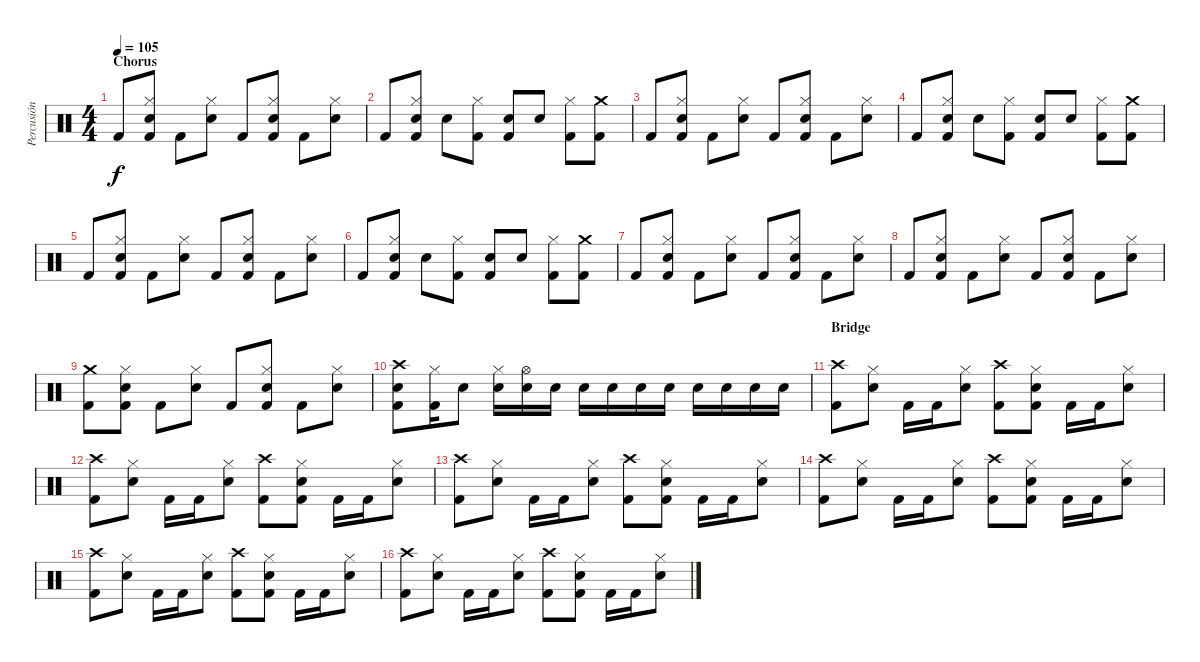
\track ("Percusión" "Percusión") {instrument percussion}
\staff {score}
\articulation defaults
\ts (4 4)
\section ("" "Chorus")
\tempo 105
\clef neutral
\ks c "Kick (hit) 2".8{dy f}
("Hi-Hat (closed)" "Snare (hit) 2" "Kick (hit) 2").8 "Kick (hit) 2".8 ("Hi-Hat (closed)" "Snare (hit) 2").8 "Kick (hit) 2".8 ("Hi-Hat (closed)" "Snare (hit) 2" "Kick (hit) 2").8 "Kick (hit) 2".8 ("Hi-Hat (closed)" "Snare (hit) 2").8 |
"Kick (hit) 2".8 ("Hi-Hat (closed)" "Snare (hit) 2" "Kick (hit) 2").8 "Snare (hit) 2".8 ("Hi-Hat (closed)" "Kick (hit) 2").8 ("Snare (hit) 2" "Kick (hit) 2").8 "Snare (hit) 2".8 ("Hi-Hat (closed)" "Kick (hit) 2").8 ("Crash medium (hit)" "Kick (hit) 2").8 |
"Kick (hit) 2".8 ("Hi-Hat (closed)" "Snare (hit) 2" "Kick (hit) 2").8 "Kick (hit) 2".8 ("Hi-Hat (closed)" "Snare (hit) 2").8 "Kick (hit) 2".8 ("Hi-Hat (closed)" "Snare (hit) 2" "Kick (hit) 2").8 "Kick (hit) 2".8 ("Hi-Hat (closed)" "Snare (hit) 2").8 |
"Kick (hit) 2".8 ("Hi-Hat (closed)" "Snare (hit) 2" "Kick (hit) 2").8 "Snare (hit) 2".8 ("Hi-Hat (closed)" "Kick (hit) 2").8 ("Snare (hit) 2" "Kick (hit) 2").8 "Snare (hit) 2".8 ("Hi-Hat (closed)" "Kick (hit) 2").8 ("Crash medium (hit)" "Kick (hit) 2").8 |
"Kick (hit) 2".8 ("Hi-Hat (closed)" "Snare (hit) 2" "Kick (hit) 2").8 "Kick (hit) 2".8 ("Hi-Hat (closed)" "Snare (hit) 2").8 "Kick (hit) 2".8 ("Hi-Hat (closed)" "Snare (hit) 2" "Kick (hit) 2").8 "Kick (hit) 2".8 ("Hi-Hat (closed)" "Snare (hit) 2").8 |
"Kick (hit) 2".8 ("Hi-Hat (closed)" "Snare (hit) 2" "Kick (hit) 2").8 "Snare (hit) 2".8 ("Hi-Hat (closed)" "Kick (hit) 2").8 ("Snare (hit) 2" "Kick (hit) 2").8 "Snare (hit) 2".8 ("Hi-Hat (closed)" "Kick (hit) 2").8 ("Crash medium (hit)" "Kick (hit) 2").8 |
"Kick (hit) 2".8 ("Hi-Hat (closed)" "Snare (hit) 2" "Kick (hit) 2").8 "Kick (hit) 2".8 ("Hi-Hat (closed)" "Snare (hit) 2").8 "Kick (hit) 2".8 ("Hi-Hat (closed)" "Snare (hit) 2" "Kick (hit) 2").8 "Kick (hit) 2".8 ("Hi-Hat (closed)" "Snare (hit) 2").8 |
"Kick (hit) 2".8 ("Hi-Hat (closed)" "Snare (hit) 2" "Kick (hit) 2").8 "Kick (hit) 2".8 ("Hi-Hat (closed)" "Snare (hit) 2").8 "Kick (hit) 2".8 ("Hi-Hat (closed)" "Snare (hit) 2" "Kick (hit) 2").8 "Kick (hit) 2".8 ("Hi-Hat (closed)" "Snare (hit) 2").8 |
("Crash medium (hit)" "Kick (hit) 2").8 ("Hi-Hat (closed)" "Snare (hit) 2" "Kick (hit) 2").8 "Kick (hit) 2".8 ("Hi-Hat (closed)" "Snare (hit) 2").8 "Kick (hit) 2".8 ("Hi-Hat (closed)" "Snare (hit) 2" "Kick (hit) 2").8 "Kick (hit) 2".8 ("Hi-Hat (closed)" "Snare (hit) 2").8 |
("Crash high (hit)" "Snare (hit) 2" "Kick (hit) 2").8 ("Hi-Hat (closed)" "Kick (hit) 2").16 "Snare (hit) 2".8 ("Hi-Hat (closed)" "Snare (hit) 2").16 ("Hi-Hat (open)" "Snare (hit) 2").16 "Snare (hit) 2".16 "Snare (hit) 2".16 "Snare (hit) 2".16 "Snare (hit) 2".16 "Snare (hit) 2".16 "Snare (hit) 2".16 "Snare (hit) 2".16 "Snare (hit) 2".16 "Snare (hit) 2".16 |
\section ("" "Bridge")
("Crash high (hit)" "Kick (hit) 2").8 ("Hi-Hat (closed)" "Snare (hit) 2").8 "Kick (hit) 2".16 "Kick (hit) 2".16 ("Hi-Hat (closed)" "Snare (hit) 2").8 ("Crash high (hit)" "Kick (hit) 2").8 ("Hi-Hat (closed)" "Snare (hit) 2" "Kick (hit) 2").8 "Kick (hit) 2".16 "Kick (hit) 2".16 ("Hi-Hat (closed)" "Snare (hit) 2").8 |
("Crash high (hit)" "Kick (hit) 2").8 ("Hi-Hat (closed)" "Snare (hit) 2").8 "Kick (hit) 2".16 "Kick (hit) 2".16 ("Hi-Hat (closed)" "Snare (hit) 2").8 ("Crash high (hit)" "Kick (hit) 2").8 ("Hi-Hat (closed)" "Snare (hit) 2" "Kick (hit) 2").8 "Kick (hit) 2".16 "Kick (hit) 2".16 ("Hi-Hat (closed)" "Snare (hit) 2").8 |
("Crash high (hit)" "Kick (hit) 2").8 ("Hi-Hat (closed)" "Snare (hit) 2").8 "Kick (hit) 2".16 "Kick (hit) 2".16 ("Hi-Hat (closed)" "Snare (hit) 2").8 ("Crash high (hit)" "Kick (hit) 2").8 ("Hi-Hat (closed)" "Snare (hit) 2" "Kick (hit) 2").8 "Kick (hit) 2".16 "Kick (hit) 2".16 ("Hi-Hat (closed)" "Snare (hit) 2").8 |
("Crash high (hit)" "Kick (hit) 2").8 ("Hi-Hat (closed)" "Snare (hit) 2").8 "Kick (hit) 2".16 "Kick (hit) 2".16 ("Hi-Hat (closed)" "Snare (hit) 2").8 ("Crash high (hit)" "Kick (hit) 2").8 ("Hi-Hat (closed)" "Snare (hit) 2" "Kick (hit) 2").8 "Kick (hit) 2".16 "Kick (hit) 2".16 ("Hi-Hat (closed)" "Snare (hit) 2").8 |
("Crash high (hit)" "Kick (hit) 2").8 ("Hi-Hat (closed)" "Snare (hit) 2").8 "Kick (hit) 2".16 "Kick (hit) 2".16 ("Hi-Hat (closed)" "Snare (hit) 2").8 ("Crash high (hit)" "Kick (hit) 2").8 ("Hi-Hat (closed)" "Snare (hit) 2" "Kick (hit) 2").8 "Kick (hit) 2".16 "Kick (hit) 2".16 ("Hi-Hat (closed)" "Snare (hit) 2").8 |
("Crash high (hit)" "Kick (hit) 2").8 ("Hi-Hat (closed)" "Snare (hit) 2").8 "Kick (hit) 2".16 "Kick (hit) 2".16 ("Hi-Hat (closed)" "Snare (hit) 2").8 ("Crash high (hit)" "Kick (hit) 2").8 ("Hi-Hat (closed)" "Snare (hit) 2" "Kick (hit) 2").8 "Kick (hit) 2".16 "Kick (hit) 2".16 ("Hi-Hat (closed)" "Snare (hit) 2").8
